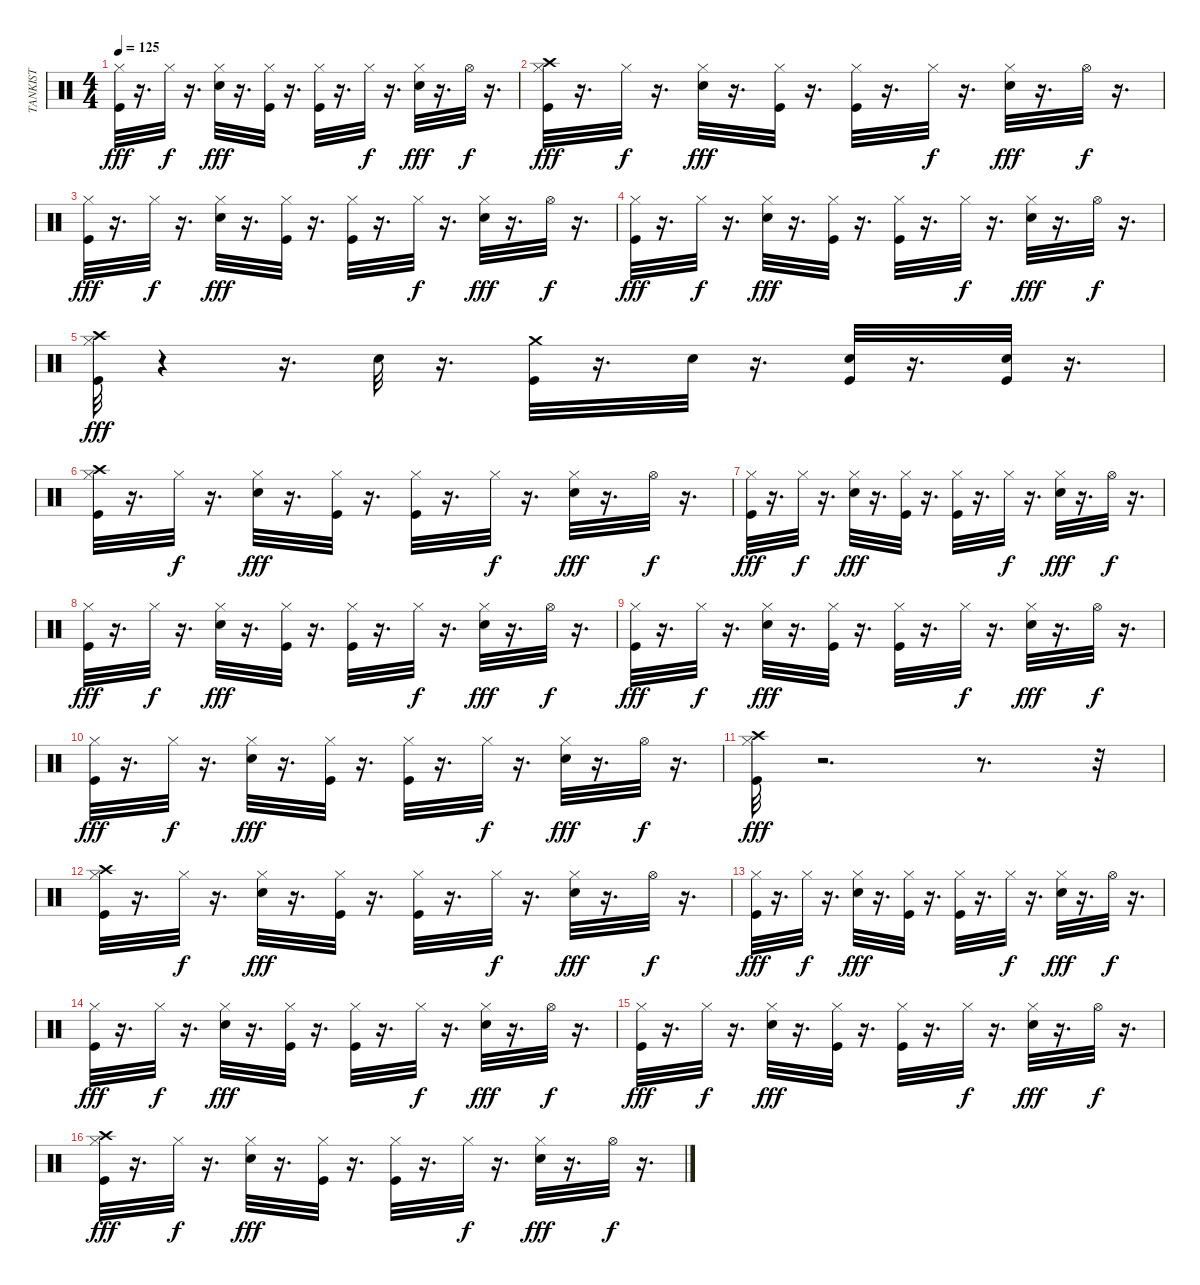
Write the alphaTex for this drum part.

\track ("TANKIST" "TANKIST") {instrument percussion}
\staff {score}
\articulation defaults
\ts (4 4)
\tempo 125
\clef neutral
\ks c
("Kick (hit)" "Hi-Hat (closed)").32{dy fff} r.16{d} "Hi-Hat (closed)".32{dy f} r.16{d} ("Electric Snare (hit)" "Hi-Hat (closed)").32{dy fff} r.16{d} ("Kick (hit)" "Hi-Hat (closed)").32 r.16{d} ("Kick (hit)" "Hi-Hat (closed)").32 r.16{d} "Hi-Hat (closed)".32{dy f} r.16{d} ("Electric Snare (hit)" "Hi-Hat (closed)").32{dy fff} r.16{d} "Hi-Hat (open)".32{dy f} r.16{d} |
("Crash high (hit)" "Hi-Hat (closed)" "Kick (hit)").32{dy fff} r.16{d} "Hi-Hat (closed)".32{dy f} r.16{d} ("Hi-Hat (closed)" "Electric Snare (hit)").32{dy fff} r.16{d} ("Hi-Hat (closed)" "Kick (hit)").32 r.16{d} ("Hi-Hat (closed)" "Kick (hit)").32 r.16{d} "Hi-Hat (closed)".32{dy f} r.16{d} ("Hi-Hat (closed)" "Electric Snare (hit)").32{dy fff} r.16{d} "Hi-Hat (open)".32{dy f} r.16{d} |
("Kick (hit)" "Hi-Hat (closed)").32{dy fff} r.16{d} "Hi-Hat (closed)".32{dy f} r.16{d} ("Electric Snare (hit)" "Hi-Hat (closed)").32{dy fff} r.16{d} ("Kick (hit)" "Hi-Hat (closed)").32 r.16{d} ("Kick (hit)" "Hi-Hat (closed)").32 r.16{d} "Hi-Hat (closed)".32{dy f} r.16{d} ("Electric Snare (hit)" "Hi-Hat (closed)").32{dy fff} r.16{d} "Hi-Hat (open)".32{dy f} r.16{d} |
("Hi-Hat (closed)" "Kick (hit)").32{dy fff} r.16{d} "Hi-Hat (closed)".32{dy f} r.16{d} ("Hi-Hat (closed)" "Electric Snare (hit)").32{dy fff} r.16{d} ("Hi-Hat (closed)" "Kick (hit)").32 r.16{d} ("Hi-Hat (closed)" "Kick (hit)").32 r.16{d} "Hi-Hat (closed)".32{dy f} r.16{d} ("Hi-Hat (closed)" "Electric Snare (hit)").32{dy fff} r.16{d} "Hi-Hat (open)".32{dy f} r.16{d} |
("Crash high (hit)" "Kick (hit)" "Hi-Hat (closed)").32{dy fff} r.4 r.16{d} "Electric Snare (hit)".32 r.16{d} ("Crash medium (hit)" "Kick (hit)").32 r.16{d} "Electric Snare (hit)".32 r.16{d} ("Electric Snare (hit)" "Kick (hit)").32 r.16{d} ("Kick (hit)" "Electric Snare (hit)").32 r.16{d} |
("Crash high (hit)" "Hi-Hat (closed)" "Kick (hit)").32 r.16{d} "Hi-Hat (closed)".32{dy f} r.16{d} ("Hi-Hat (closed)" "Electric Snare (hit)").32{dy fff} r.16{d} ("Hi-Hat (closed)" "Kick (hit)").32 r.16{d} ("Hi-Hat (closed)" "Kick (hit)").32 r.16{d} "Hi-Hat (closed)".32{dy f} r.16{d} ("Hi-Hat (closed)" "Electric Snare (hit)").32{dy fff} r.16{d} "Hi-Hat (open)".32{dy f} r.16{d} |
("Kick (hit)" "Hi-Hat (closed)").32{dy fff} r.16{d} "Hi-Hat (closed)".32{dy f} r.16{d} ("Electric Snare (hit)" "Hi-Hat (closed)").32{dy fff} r.16{d} ("Kick (hit)" "Hi-Hat (closed)").32 r.16{d} ("Kick (hit)" "Hi-Hat (closed)").32 r.16{d} "Hi-Hat (closed)".32{dy f} r.16{d} ("Electric Snare (hit)" "Hi-Hat (closed)").32{dy fff} r.16{d} "Hi-Hat (open)".32{dy f} r.16{d} |
("Hi-Hat (closed)" "Kick (hit)").32{dy fff} r.16{d} "Hi-Hat (closed)".32{dy f} r.16{d} ("Hi-Hat (closed)" "Electric Snare (hit)").32{dy fff} r.16{d} ("Hi-Hat (closed)" "Kick (hit)").32 r.16{d} ("Hi-Hat (closed)" "Kick (hit)").32 r.16{d} "Hi-Hat (closed)".32{dy f} r.16{d} ("Hi-Hat (closed)" "Electric Snare (hit)").32{dy fff} r.16{d} "Hi-Hat (open)".32{dy f} r.16{d} |
("Kick (hit)" "Hi-Hat (closed)").32{dy fff} r.16{d} "Hi-Hat (closed)".32{dy f} r.16{d} ("Electric Snare (hit)" "Hi-Hat (closed)").32{dy fff} r.16{d} ("Kick (hit)" "Hi-Hat (closed)").32 r.16{d} ("Kick (hit)" "Hi-Hat (closed)").32 r.16{d} "Hi-Hat (closed)".32{dy f} r.16{d} ("Electric Snare (hit)" "Hi-Hat (closed)").32{dy fff} r.16{d} "Hi-Hat (open)".32{dy f} r.16{d} |
("Hi-Hat (closed)" "Kick (hit)").32{dy fff} r.16{d} "Hi-Hat (closed)".32{dy f} r.16{d} ("Hi-Hat (closed)" "Electric Snare (hit)").32{dy fff} r.16{d} ("Hi-Hat (closed)" "Kick (hit)").32 r.16{d} ("Hi-Hat (closed)" "Kick (hit)").32 r.16{d} "Hi-Hat (closed)".32{dy f} r.16{d} ("Hi-Hat (closed)" "Electric Snare (hit)").32{dy fff} r.16{d} "Hi-Hat (open)".32{dy f} r.16{d} |
("Crash high (hit)" "Kick (hit)" "Hi-Hat (closed)").32{dy fff} r.2{d} r.8{d} r.32 |
("Crash high (hit)" "Hi-Hat (closed)" "Kick (hit)").32 r.16{d} "Hi-Hat (closed)".32{dy f} r.16{d} ("Hi-Hat (closed)" "Electric Snare (hit)").32{dy fff} r.16{d} ("Hi-Hat (closed)" "Kick (hit)").32 r.16{d} ("Hi-Hat (closed)" "Kick (hit)").32 r.16{d} "Hi-Hat (closed)".32{dy f} r.16{d} ("Hi-Hat (closed)" "Electric Snare (hit)").32{dy fff} r.16{d} "Hi-Hat (open)".32{dy f} r.16{d} |
("Kick (hit)" "Hi-Hat (closed)").32{dy fff} r.16{d} "Hi-Hat (closed)".32{dy f} r.16{d} ("Electric Snare (hit)" "Hi-Hat (closed)").32{dy fff} r.16{d} ("Kick (hit)" "Hi-Hat (closed)").32 r.16{d} ("Kick (hit)" "Hi-Hat (closed)").32 r.16{d} "Hi-Hat (closed)".32{dy f} r.16{d} ("Electric Snare (hit)" "Hi-Hat (closed)").32{dy fff} r.16{d} "Hi-Hat (open)".32{dy f} r.16{d} |
("Hi-Hat (closed)" "Kick (hit)").32{dy fff} r.16{d} "Hi-Hat (closed)".32{dy f} r.16{d} ("Hi-Hat (closed)" "Electric Snare (hit)").32{dy fff} r.16{d} ("Hi-Hat (closed)" "Kick (hit)").32 r.16{d} ("Hi-Hat (closed)" "Kick (hit)").32 r.16{d} "Hi-Hat (closed)".32{dy f} r.16{d} ("Hi-Hat (closed)" "Electric Snare (hit)").32{dy fff} r.16{d} "Hi-Hat (open)".32{dy f} r.16{d} |
("Kick (hit)" "Hi-Hat (closed)").32{dy fff} r.16{d} "Hi-Hat (closed)".32{dy f} r.16{d} ("Electric Snare (hit)" "Hi-Hat (closed)").32{dy fff} r.16{d} ("Kick (hit)" "Hi-Hat (closed)").32 r.16{d} ("Kick (hit)" "Hi-Hat (closed)").32 r.16{d} "Hi-Hat (closed)".32{dy f} r.16{d} ("Electric Snare (hit)" "Hi-Hat (closed)").32{dy fff} r.16{d} "Hi-Hat (open)".32{dy f} r.16{d} |
("Crash high (hit)" "Hi-Hat (closed)" "Kick (hit)").32{dy fff} r.16{d} "Hi-Hat (closed)".32{dy f} r.16{d} ("Hi-Hat (closed)" "Electric Snare (hit)").32{dy fff} r.16{d} ("Hi-Hat (closed)" "Kick (hit)").32 r.16{d} ("Hi-Hat (closed)" "Kick (hit)").32 r.16{d} "Hi-Hat (closed)".32{dy f} r.16{d} ("Hi-Hat (closed)" "Electric Snare (hit)").32{dy fff} r.16{d} "Hi-Hat (open)".32{dy f} r.16{d}
